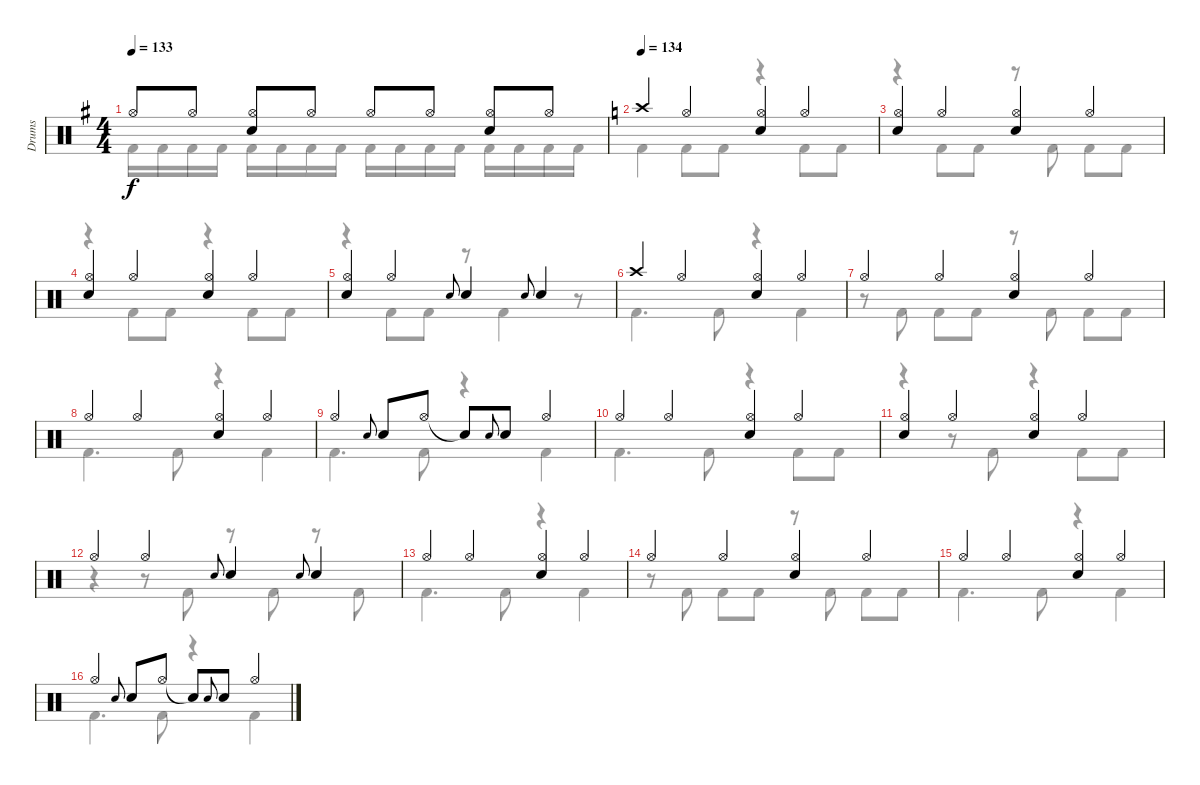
\track ("Drums" "Drums") {instrument percussion}
\staff {score}
\articulation defaults
\voice
\ts (4 4)
\tempo 133
\clef neutral
\ks g "Hi-Hat (open)".8{dy f} "Hi-Hat (open)".8
("Hi-Hat (open)" "Electric Snare (hit)").8 "Hi-Hat (open)".8 "Hi-Hat (open)".8 "Hi-Hat (open)".8 ("Hi-Hat (open)" "Electric Snare (hit)").8 "Hi-Hat (open)".8 |
\tempo 134
\ks c "Crash high (hit)".4 "Hi-Hat (open)".4
("Hi-Hat (open)" "Electric Snare (hit)").4 "Hi-Hat (open)".4 |
("Hi-Hat (open)" "Electric Snare (hit)").4 "Hi-Hat (open)".4 ("Hi-Hat (open)" "Electric Snare (hit)").4 "Hi-Hat (open)".4 |
("Hi-Hat (open)" "Electric Snare (hit)").4 "Hi-Hat (open)".4 ("Hi-Hat (open)" "Electric Snare (hit)").4 "Hi-Hat (open)".4 |
("Hi-Hat (open)" "Electric Snare (hit)").4 "Hi-Hat (open)".4 "Electric Snare (hit)".8{gr onbeat} "Electric Snare (hit)".4 "Electric Snare (hit)".8{gr onbeat} "Electric Snare (hit)".4 |
"Crash high (hit)".4 "Hi-Hat (open)".4 ("Hi-Hat (open)" "Electric Snare (hit)").4 "Hi-Hat (open)".4 |
"Hi-Hat (open)".4 "Hi-Hat (open)".4 ("Hi-Hat (open)" "Electric Snare (hit)").4 "Hi-Hat (open)".4 |
"Hi-Hat (open)".4 "Hi-Hat (open)".4 ("Hi-Hat (open)" "Electric Snare (hit)").4 "Hi-Hat (open)".4 |
"Hi-Hat (open)".4 "Electric Snare (hit)".8{gr onbeat} "Electric Snare (hit)".8 "Hi-Hat (open)".8 "Snare (hit)"{t}.8 "Electric Snare (hit)".8{gr onbeat} "Electric Snare (hit)".8 "Hi-Hat (open)".4 |
"Hi-Hat (open)".4 "Hi-Hat (open)".4 ("Hi-Hat (open)" "Electric Snare (hit)").4 "Hi-Hat (open)".4 |
("Hi-Hat (open)" "Electric Snare (hit)").4 "Hi-Hat (open)".4 ("Hi-Hat (open)" "Electric Snare (hit)").4 "Hi-Hat (open)".4 |
"Hi-Hat (open)".4 "Hi-Hat (open)".4 "Electric Snare (hit)".8{gr onbeat} "Electric Snare (hit)".4 "Electric Snare (hit)".8{gr onbeat} "Electric Snare (hit)".4 |
"Hi-Hat (open)".4 "Hi-Hat (open)".4 ("Hi-Hat (open)" "Electric Snare (hit)").4 "Hi-Hat (open)".4 |
"Hi-Hat (open)".4 "Hi-Hat (open)".4 ("Hi-Hat (open)" "Electric Snare (hit)").4 "Hi-Hat (open)".4 |
"Hi-Hat (open)".4 "Hi-Hat (open)".4 ("Hi-Hat (open)" "Electric Snare (hit)").4 "Hi-Hat (open)".4 |
"Hi-Hat (open)".4 "Electric Snare (hit)".8{gr onbeat} "Electric Snare (hit)".8 "Hi-Hat (open)".8 "Snare (hit)"{t}.8 "Electric Snare (hit)".8{gr onbeat} "Electric Snare (hit)".8 "Hi-Hat (open)".4
\voice
\clef neutral
\ottava regular
\simile none
\ks g "Kick (hit) 2".16{dy f} "Kick (hit) 2".16 "Kick (hit) 2".16 "Kick (hit) 2".16 "Kick (hit) 2".16 "Kick (hit) 2".16 "Kick (hit) 2".16 "Kick (hit) 2".16 "Kick (hit) 2".16 "Kick (hit) 2".16 "Kick (hit) 2".16 "Kick (hit) 2".16 "Kick (hit) 2".16 "Kick (hit) 2".16 "Kick (hit) 2".16 "Kick (hit) 2".16
|
\ks c "Kick (hit) 2".4 "Kick (hit) 2".8 "Kick (hit) 2".8
r.4 "Kick (hit) 2".8 "Kick (hit) 2".8 |
r.4 "Kick (hit) 2".8 "Kick (hit) 2".8 r.8 "Kick (hit) 2".8 "Kick (hit) 2".8 "Kick (hit) 2".8 |
r.4 "Kick (hit) 2".8 "Kick (hit) 2".8 r.4 "Kick (hit) 2".8 "Kick (hit) 2".8 |
r.4 "Kick (hit) 2".8 "Kick (hit) 2".8 r.8 "Kick (hit) 2".4 r.8 |
"Kick (hit) 2".4{d} "Kick (hit) 2".8 r.4 "Kick (hit) 2".4 |
r.8 "Kick (hit) 2".8 "Kick (hit) 2".8 "Kick (hit) 2".8 r.8 "Kick (hit) 2".8 "Kick (hit) 2".8 "Kick (hit) 2".8 |
"Kick (hit) 2".4{d} "Kick (hit) 2".8 r.4 "Kick (hit) 2".4 |
"Kick (hit) 2".4{d} "Kick (hit) 2".8 r.4 "Kick (hit) 2".4 |
"Kick (hit) 2".4{d} "Kick (hit) 2".8 r.4 "Kick (hit) 2".8{beam merge} "Kick (hit) 2".8 |
r.4 r.8 "Kick (hit) 2".8 r.4 "Kick (hit) 2".8 "Kick (hit) 2".8 |
r.4 r.8 "Kick (hit) 2".8 r.8 "Kick (hit) 2".8 r.8 "Kick (hit) 2".8 |
"Kick (hit) 2".4{d} "Kick (hit) 2".8 r.4 "Kick (hit) 2".4 |
r.8 "Kick (hit) 2".8 "Kick (hit) 2".8 "Kick (hit) 2".8 r.8 "Kick (hit) 2".8 "Kick (hit) 2".8 "Kick (hit) 2".8 |
"Kick (hit) 2".4{d} "Kick (hit) 2".8 r.4 "Kick (hit) 2".4 |
"Kick (hit) 2".4{d} "Kick (hit) 2".8 r.4 "Kick (hit) 2".4
